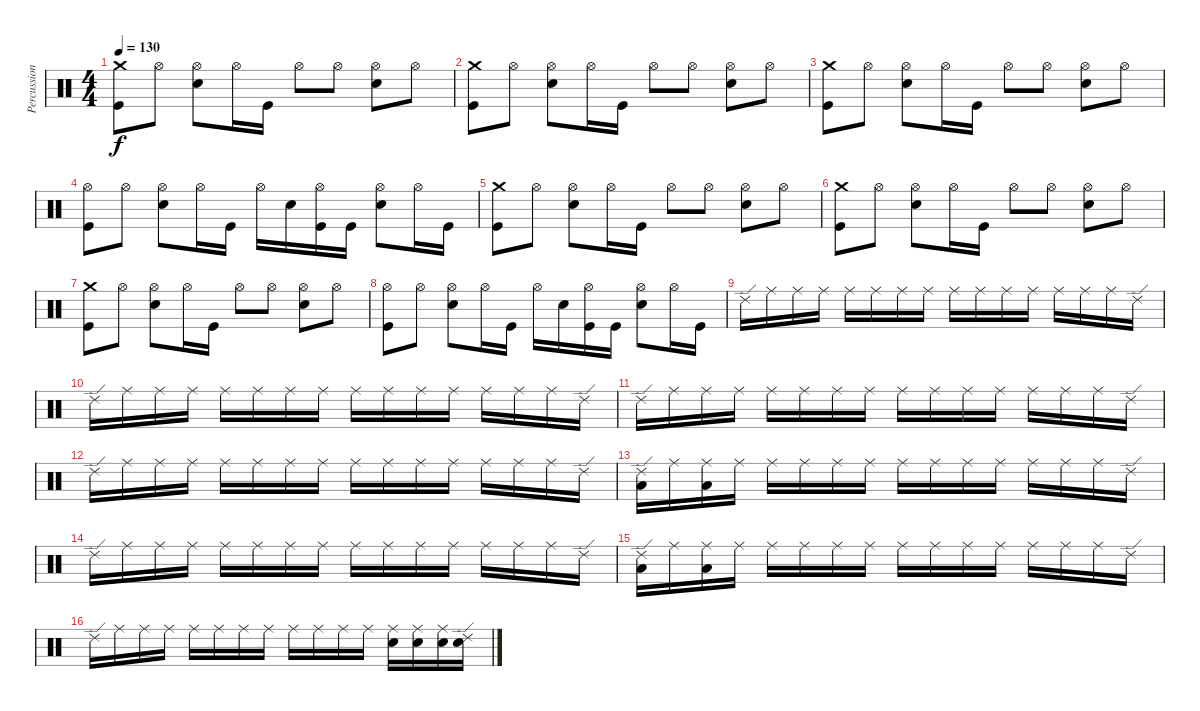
\track ("Percussion" "Percussion") {instrument percussion}
\staff {score}
\articulation defaults
\ts (4 4)
\tempo 130
\clef neutral
\ks c
("Kick (hit)" "Crash medium (hit)").8{dy f} "Hi-Hat (open)".8 ("Hi-Hat (open)" "Electric Snare (hit)").8 "Hi-Hat (open)".16 "Kick (hit)".16 "Hi-Hat (open)".8 "Hi-Hat (open)".8 ("Hi-Hat (open)" "Electric Snare (hit)").8 "Hi-Hat (open)".8 |
("Kick (hit)" "Crash medium (hit)").8 "Hi-Hat (open)".8 ("Hi-Hat (open)" "Electric Snare (hit)").8 "Hi-Hat (open)".16 "Kick (hit)".16 "Hi-Hat (open)".8 "Hi-Hat (open)".8 ("Hi-Hat (open)" "Electric Snare (hit)").8 "Hi-Hat (open)".8 |
("Kick (hit)" "Crash medium (hit)").8 "Hi-Hat (open)".8 ("Hi-Hat (open)" "Electric Snare (hit)").8 "Hi-Hat (open)".16 "Kick (hit)".16 "Hi-Hat (open)".8 "Hi-Hat (open)".8 ("Hi-Hat (open)" "Electric Snare (hit)").8 "Hi-Hat (open)".8 |
("Kick (hit)" "Hi-Hat (open)").8 "Hi-Hat (open)".8 ("Hi-Hat (open)" "Electric Snare (hit)").8 "Hi-Hat (open)".16 "Kick (hit)".16 "Hi-Hat (open)".16 "Electric Snare (hit)".16 ("Kick (hit)" "Hi-Hat (open)").16 "Kick (hit)".16 ("Hi-Hat (open)" "Electric Snare (hit)").8 "Hi-Hat (open)".16 "Kick (hit)".16 |
("Kick (hit)" "Crash medium (hit)").8 "Hi-Hat (open)".8 ("Hi-Hat (open)" "Electric Snare (hit)").8 "Hi-Hat (open)".16 "Kick (hit)".16 "Hi-Hat (open)".8 "Hi-Hat (open)".8 ("Hi-Hat (open)" "Electric Snare (hit)").8 "Hi-Hat (open)".8 |
("Kick (hit)" "Crash medium (hit)").8 "Hi-Hat (open)".8 ("Hi-Hat (open)" "Electric Snare (hit)").8 "Hi-Hat (open)".16 "Kick (hit)".16 "Hi-Hat (open)".8 "Hi-Hat (open)".8 ("Hi-Hat (open)" "Electric Snare (hit)").8 "Hi-Hat (open)".8 |
("Kick (hit)" "Crash medium (hit)").8 "Hi-Hat (open)".8 ("Hi-Hat (open)" "Electric Snare (hit)").8 "Hi-Hat (open)".16 "Kick (hit)".16 "Hi-Hat (open)".8 "Hi-Hat (open)".8 ("Hi-Hat (open)" "Electric Snare (hit)").8 "Hi-Hat (open)".8 |
("Kick (hit)" "Hi-Hat (open)").8 "Hi-Hat (open)".8 ("Hi-Hat (open)" "Electric Snare (hit)").8 "Hi-Hat (open)".16 "Kick (hit)".16 "Hi-Hat (open)".16 "Electric Snare (hit)".16 ("Kick (hit)" "Hi-Hat (open)").16 "Kick (hit)".16 ("Hi-Hat (open)" "Electric Snare (hit)").8 "Hi-Hat (open)".16 "Kick (hit)".16 |
"Ride (edge) 2".16 "Ride (middle)".16 "Ride (middle)".16 "Ride (middle)".16 "Ride (middle)".16 "Ride (middle)".16 "Ride (middle)".16 "Ride (middle)".16 "Ride (middle)".16 "Ride (middle)".16 "Ride (middle)".16 "Ride (middle)".16 "Ride (middle)".16 "Ride (middle)".16 "Ride (middle)".16 "Ride (edge) 2".16 |
"Ride (edge) 2".16 "Ride (middle)".16 "Ride (middle)".16 "Ride (middle)".16 "Ride (middle)".16 "Ride (middle)".16 "Ride (middle)".16 "Ride (middle)".16 "Ride (middle)".16 "Ride (middle)".16 "Ride (middle)".16 "Ride (middle)".16 "Ride (middle)".16 "Ride (middle)".16 "Ride (middle)".16 "Ride (edge) 2".16 |
"Ride (edge) 2".16 "Ride (middle)".16 "Ride (middle)".16 "Ride (middle)".16 "Ride (middle)".16 "Ride (middle)".16 "Ride (middle)".16 "Ride (middle)".16 "Ride (middle)".16 "Ride (middle)".16 "Ride (middle)".16 "Ride (middle)".16 "Ride (middle)".16 "Ride (middle)".16 "Ride (middle)".16 "Ride (edge) 2".16 |
"Ride (edge) 2".16 "Ride (middle)".16 "Ride (middle)".16 "Ride (middle)".16 "Ride (middle)".16 "Ride (middle)".16 "Ride (middle)".16 "Ride (middle)".16 "Ride (middle)".16 "Ride (middle)".16 "Ride (middle)".16 "Ride (middle)".16 "Ride (middle)".16 "Ride (middle)".16 "Ride (middle)".16 "Ride (edge) 2".16 |
("Low Floor Tom (hit)" "Ride (edge) 2").16 "Ride (middle)".16 ("Low Floor Tom (hit)" "Ride (middle)").16 "Ride (middle)".16 "Ride (middle)".16 "Ride (middle)".16 "Ride (middle)".16 "Ride (middle)".16 "Ride (middle)".16 "Ride (middle)".16 "Ride (middle)".16 "Ride (middle)".16 "Ride (middle)".16 "Ride (middle)".16 "Ride (middle)".16 "Ride (edge) 2".16 |
"Ride (edge) 2".16 "Ride (middle)".16 "Ride (middle)".16 "Ride (middle)".16 "Ride (middle)".16 "Ride (middle)".16 "Ride (middle)".16 "Ride (middle)".16 "Ride (middle)".16 "Ride (middle)".16 "Ride (middle)".16 "Ride (middle)".16 "Ride (middle)".16 "Ride (middle)".16 "Ride (middle)".16 "Ride (edge) 2".16 |
("Low Floor Tom (hit)" "Ride (edge) 2").16 "Ride (middle)".16 ("Low Floor Tom (hit)" "Ride (middle)").16 "Ride (middle)".16 "Ride (middle)".16 "Ride (middle)".16 "Ride (middle)".16 "Ride (middle)".16 "Ride (middle)".16 "Ride (middle)".16 "Ride (middle)".16 "Ride (middle)".16 "Ride (middle)".16 "Ride (middle)".16 "Ride (middle)".16 "Ride (edge) 2".16 |
"Ride (edge) 2".16 "Ride (middle)".16 "Ride (middle)".16 "Ride (middle)".16 "Ride (middle)".16 "Ride (middle)".16 "Ride (middle)".16 "Ride (middle)".16 "Ride (middle)".16 "Ride (middle)".16 "Ride (middle)".16 "Ride (middle)".16 ("Electric Snare (hit)" "Ride (middle)").16 ("Electric Snare (hit)" "Ride (middle)").16 ("Electric Snare (hit)" "Ride (middle)").16 ("Electric Snare (hit)" "Ride (edge) 2").16
